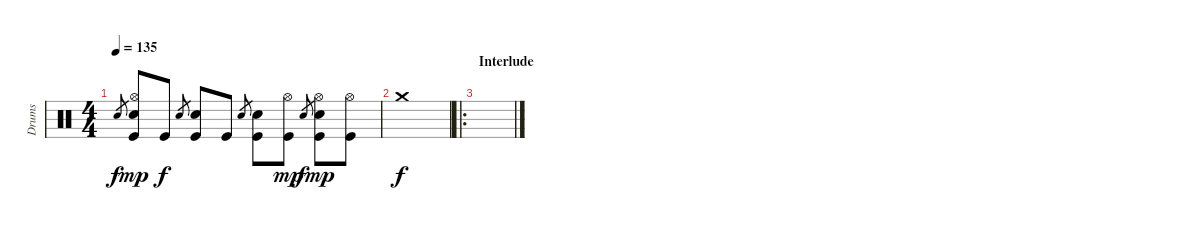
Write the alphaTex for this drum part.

\track ("Drums" "Drums") {instrument percussion}
\staff {score}
\articulation defaults
\ts (4 4)
\tempo 135
\clef neutral
\ks c "Electric Snare (hit)".8{gr dy f}
("Hi-Hat (open)" "Electric Snare (hit)" "Kick (hit)").8{dy mp} "Kick (hit)".8{dy f} "Electric Snare (hit)".8{gr} ("Electric Snare (hit)" "Kick (hit)").8 "Kick (hit)".8 "Electric Snare (hit)".8{gr} ("Electric Snare (hit)" "Kick (hit)").8 ("Hi-Hat (open)" "Kick (hit)").8{dy mp} "Electric Snare (hit)".8{gr dy f} ("Hi-Hat (open)" "Electric Snare (hit)" "Kick (hit)").8{dy mp} ("Hi-Hat (open)" "Kick (hit)").8 |
"Crash medium (hit)".1{dy f} |
\ro
\section ("" "Interlude")
